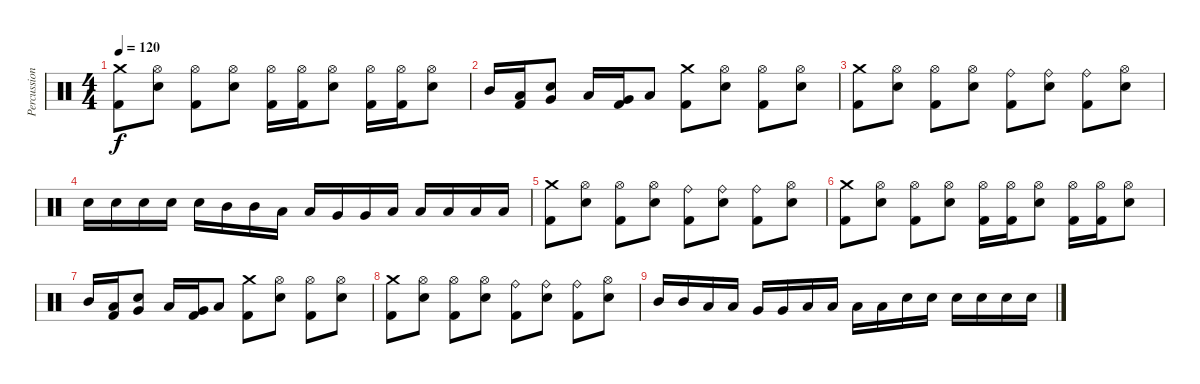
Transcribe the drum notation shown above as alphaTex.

\track ("Percussion" "Percussion") {instrument percussion}
\staff {score}
\articulation defaults
\ts (4 4)
\tempo 120
\clef neutral
\ks c
("Crash medium (hit)" "Kick (hit) 2").8{dy f} ("Hi-Hat (open)" "Snare (hit) 2").8 ("Hi-Hat (open)" "Kick (hit) 2").8 ("Hi-Hat (open)" "Snare (hit) 2").8 ("Hi-Hat (open)" "Kick (hit) 2").16 ("Hi-Hat (open)" "Kick (hit) 2").16 ("Hi-Hat (open)" "Snare (hit) 2").8 ("Hi-Hat (open)" "Kick (hit) 2").16 ("Hi-Hat (open)" "Kick (hit) 2").16 ("Hi-Hat (open)" "Snare (hit) 2").8 |
"Mid Tom (hit)".16 ("Low Tom (hit)" "Kick (hit) 2").16 ("Very Low Tom (hit)" "Snare (hit) 2").8 "Low Tom (hit)".16 ("Very Low Tom (hit)" "Kick (hit) 2").16 "Low Floor Tom (hit)".8 ("Crash medium (hit)" "Kick (hit) 2").8 ("Hi-Hat (open)" "Snare (hit) 2").8 ("Hi-Hat (open)" "Kick (hit) 2").8 ("Hi-Hat (open)" "Snare (hit) 2").8 |
("Crash medium (hit)" "Kick (hit) 2").8 ("Hi-Hat (open)" "Snare (hit) 2").8 ("Hi-Hat (open)" "Kick (hit) 2").8 ("Hi-Hat (open)" "Snare (hit) 2").8 ("Ride (bell)" "Kick (hit) 2").8 ("Ride (bell)" "Snare (hit) 2").8 ("Ride (bell)" "Kick (hit) 2").8 ("Hi-Hat (open)" "Snare (hit) 2").8 |
"Snare (hit) 2".16 "Snare (hit) 2".16 "Snare (hit) 2".16 "Snare (hit) 2".16 "Snare (hit) 2".16 "Mid Tom (hit)".16 "Mid Tom (hit)".16 "Low Tom (hit)".16 "Low Tom (hit)".16 "Very Low Tom (hit)".16 "Very Low Tom (hit)".16 "Low Floor Tom (hit)".16 "Low Floor Tom (hit)".16 "Low Floor Tom (hit)".16 "Low Floor Tom (hit)".16 "Low Floor Tom (hit)".16 |
("Crash medium (hit)" "Kick (hit) 2").8 ("Hi-Hat (open)" "Snare (hit) 2").8 ("Hi-Hat (open)" "Kick (hit) 2").8 ("Hi-Hat (open)" "Snare (hit) 2").8 ("Ride (bell)" "Kick (hit) 2").8 ("Ride (bell)" "Snare (hit) 2").8 ("Ride (bell)" "Kick (hit) 2").8 ("Hi-Hat (open)" "Snare (hit) 2").8 |
("Crash medium (hit)" "Kick (hit) 2").8 ("Hi-Hat (open)" "Snare (hit) 2").8 ("Hi-Hat (open)" "Kick (hit) 2").8 ("Hi-Hat (open)" "Snare (hit) 2").8 ("Hi-Hat (open)" "Kick (hit) 2").16 ("Hi-Hat (open)" "Kick (hit) 2").16 ("Hi-Hat (open)" "Snare (hit) 2").8 ("Hi-Hat (open)" "Kick (hit) 2").16 ("Hi-Hat (open)" "Kick (hit) 2").16 ("Hi-Hat (open)" "Snare (hit) 2").8 |
"Mid Tom (hit)".16 ("Low Tom (hit)" "Kick (hit) 2").16 ("Very Low Tom (hit)" "Snare (hit) 2").8 "Low Tom (hit)".16 ("Very Low Tom (hit)" "Kick (hit) 2").16 "Low Floor Tom (hit)".8 ("Crash medium (hit)" "Kick (hit) 2").8 ("Hi-Hat (open)" "Snare (hit) 2").8 ("Hi-Hat (open)" "Kick (hit) 2").8 ("Hi-Hat (open)" "Snare (hit) 2").8 |
("Crash medium (hit)" "Kick (hit) 2").8 ("Hi-Hat (open)" "Snare (hit) 2").8 ("Hi-Hat (open)" "Kick (hit) 2").8 ("Hi-Hat (open)" "Snare (hit) 2").8 ("Ride (bell)" "Kick (hit) 2").8 ("Ride (bell)" "Snare (hit) 2").8 ("Ride (bell)" "Kick (hit) 2").8 ("Hi-Hat (open)" "Snare (hit) 2").8 |
"Mid Tom (hit)".16 "Mid Tom (hit)".16 "Low Tom (hit)".16 "Low Tom (hit)".16 "Very Low Tom (hit)".16 "Very Low Tom (hit)".16 "Low Floor Tom (hit)".16 "Low Floor Tom (hit)".16 "Low Floor Tom (hit)".16 "Low Floor Tom (hit)".16 "Snare (hit) 2".16 "Snare (hit) 2".16 "Snare (hit) 2".16 "Snare (hit) 2".16 "Snare (hit) 2".16 "Snare (hit) 2".16
